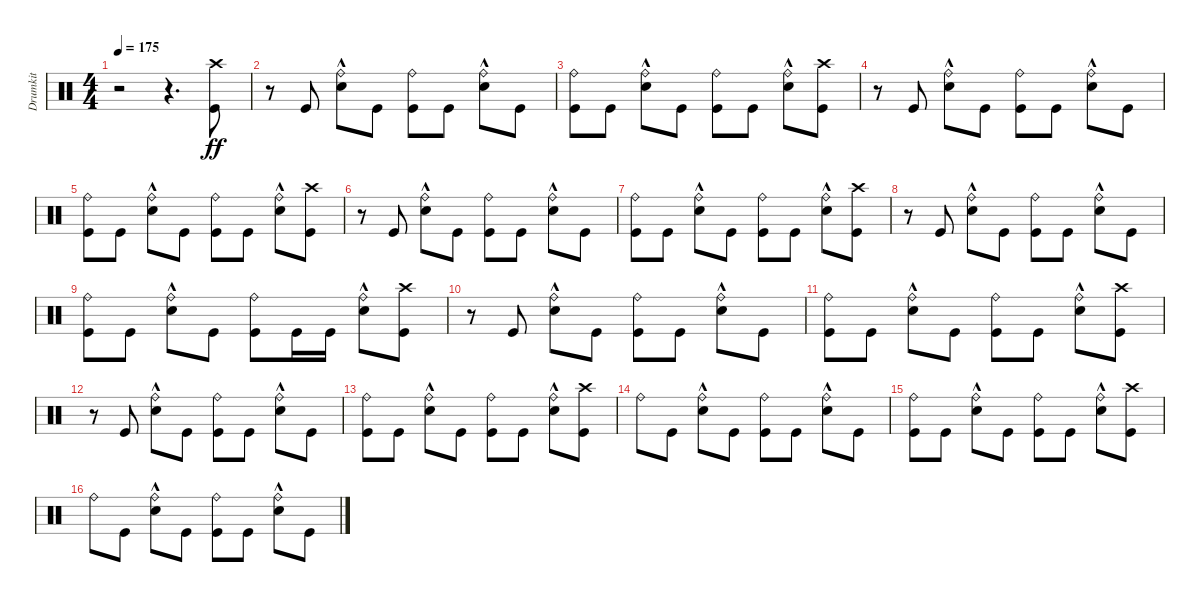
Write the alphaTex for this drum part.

\track ("Drumkit" "Drumkit") {instrument percussion}
\staff {score}
\articulation defaults
\ts (4 4)
\tempo 175
\clef neutral
\ks c
r.2{dy ff} r.4{d} ("Kick (hit)" "Crash high (hit)").8 |
r.8 "Kick (hit)".8 ("Snare (hit) 2"{hac} "Ride (bell)").8 "Kick (hit)".8 ("Kick (hit)" "Ride (bell)").8 "Kick (hit)".8 ("Snare (hit) 2"{hac} "Ride (bell)").8 "Kick (hit)".8 |
("Kick (hit)" "Ride (bell)").8 "Kick (hit)".8 ("Snare (hit) 2"{hac} "Ride (bell)").8 "Kick (hit)".8 ("Kick (hit)" "Ride (bell)").8 "Kick (hit)".8 ("Snare (hit) 2"{hac} "Ride (bell)").8 ("Kick (hit)" "Crash high (hit)").8 |
r.8 "Kick (hit)".8 ("Snare (hit) 2"{hac} "Ride (bell)").8 "Kick (hit)".8 ("Kick (hit)" "Ride (bell)").8 "Kick (hit)".8 ("Snare (hit) 2"{hac} "Ride (bell)").8 "Kick (hit)".8 |
("Kick (hit)" "Ride (bell)").8 "Kick (hit)".8 ("Snare (hit) 2"{hac} "Ride (bell)").8 "Kick (hit)".8 ("Kick (hit)" "Ride (bell)").8 "Kick (hit)".8 ("Snare (hit) 2"{hac} "Ride (bell)").8 ("Kick (hit)" "Crash high (hit)").8 |
r.8 "Kick (hit)".8 ("Snare (hit) 2"{hac} "Ride (bell)").8 "Kick (hit)".8 ("Kick (hit)" "Ride (bell)").8 "Kick (hit)".8 ("Snare (hit) 2"{hac} "Ride (bell)").8 "Kick (hit)".8 |
("Kick (hit)" "Ride (bell)").8 "Kick (hit)".8 ("Snare (hit) 2"{hac} "Ride (bell)").8 "Kick (hit)".8 ("Kick (hit)" "Ride (bell)").8 "Kick (hit)".8 ("Snare (hit) 2"{hac} "Ride (bell)").8 ("Kick (hit)" "Crash high (hit)").8 |
r.8 "Kick (hit)".8 ("Snare (hit) 2"{hac} "Ride (bell)").8 "Kick (hit)".8 ("Kick (hit)" "Ride (bell)").8 "Kick (hit)".8 ("Snare (hit) 2"{hac} "Ride (bell)").8 "Kick (hit)".8 |
("Kick (hit)" "Ride (bell)").8 "Kick (hit)".8 ("Snare (hit) 2"{hac} "Ride (bell)").8 "Kick (hit)".8 ("Kick (hit)" "Ride (bell)").8 "Kick (hit)".16 "Kick (hit)".16 ("Snare (hit) 2"{hac} "Ride (bell)").8 ("Kick (hit)" "Crash high (hit)").8 |
r.8 "Kick (hit)".8 ("Snare (hit) 2"{hac} "Ride (bell)").8 "Kick (hit)".8 ("Kick (hit)" "Ride (bell)").8 "Kick (hit)".8 ("Snare (hit) 2"{hac} "Ride (bell)").8 "Kick (hit)".8 |
("Kick (hit)" "Ride (bell)").8 "Kick (hit)".8 ("Snare (hit) 2"{hac} "Ride (bell)").8 "Kick (hit)".8 ("Kick (hit)" "Ride (bell)").8 "Kick (hit)".8 ("Snare (hit) 2"{hac} "Ride (bell)").8 ("Kick (hit)" "Crash high (hit)").8 |
r.8 "Kick (hit)".8 ("Snare (hit) 2"{hac} "Ride (bell)").8 "Kick (hit)".8 ("Kick (hit)" "Ride (bell)").8 "Kick (hit)".8 ("Snare (hit) 2"{hac} "Ride (bell)").8 "Kick (hit)".8 |
("Kick (hit)" "Ride (bell)").8 "Kick (hit)".8 ("Snare (hit) 2"{hac} "Ride (bell)").8 "Kick (hit)".8 ("Kick (hit)" "Ride (bell)").8 "Kick (hit)".8 ("Snare (hit) 2"{hac} "Ride (bell)").8 ("Kick (hit)" "Crash high (hit)").8 |
"Ride (bell)".8 "Kick (hit)".8 ("Snare (hit) 2"{hac} "Ride (bell)").8 "Kick (hit)".8 ("Kick (hit)" "Ride (bell)").8 "Kick (hit)".8 ("Snare (hit) 2"{hac} "Ride (bell)").8 "Kick (hit)".8 |
("Kick (hit)" "Ride (bell)").8 "Kick (hit)".8 ("Snare (hit) 2"{hac} "Ride (bell)").8 "Kick (hit)".8 ("Kick (hit)" "Ride (bell)").8 "Kick (hit)".8 ("Snare (hit) 2"{hac} "Ride (bell)").8 ("Kick (hit)" "Crash high (hit)").8 |
"Ride (bell)".8 "Kick (hit)".8 ("Snare (hit) 2"{hac} "Ride (bell)").8 "Kick (hit)".8 ("Kick (hit)" "Ride (bell)").8 "Kick (hit)".8 ("Snare (hit) 2"{hac} "Ride (bell)").8 "Kick (hit)".8
